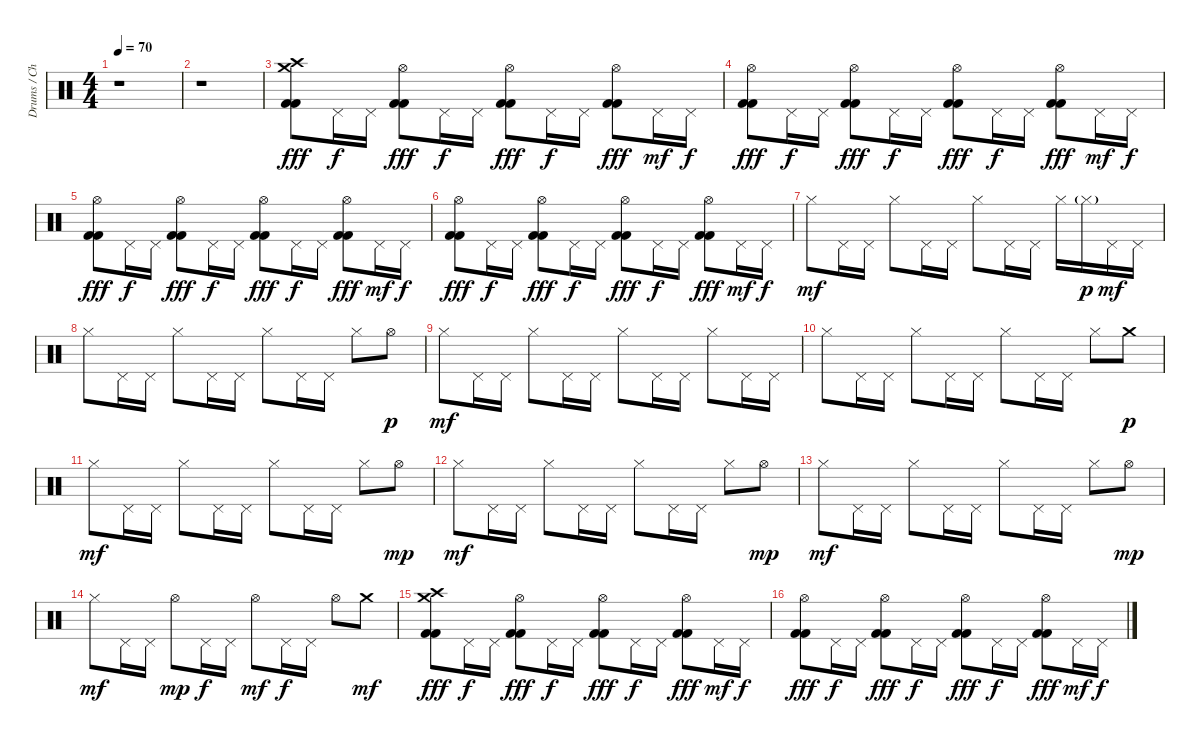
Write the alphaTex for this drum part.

\track ("Drums / Christoph Schneider" "Drums / Ch") {instrument percussion}
\staff {score}
\articulation defaults
\ts (4 4)
\tempo 70
\clef neutral
\ks c
r.1{dy fff} |
r.1 |
("Crash medium (hit)" "Crash high (hit)" "Kick (hit) 2" "Kick (hit) 2").8 "Pedal Hi-Hat (hit)".16{dy f} "Pedal Hi-Hat (hit)".16 ("Hi-Hat (open)" "Kick (hit) 2" "Kick (hit) 2").8{dy fff} "Pedal Hi-Hat (hit)".16{dy f} "Pedal Hi-Hat (hit)".16 ("Hi-Hat (open)" "Kick (hit) 2" "Kick (hit) 2").8{dy fff} "Pedal Hi-Hat (hit)".16{dy f} "Pedal Hi-Hat (hit)".16 ("Hi-Hat (open)" "Kick (hit) 2" "Kick (hit) 2").8{dy fff} "Pedal Hi-Hat (hit)".16{dy mf} "Pedal Hi-Hat (hit)".16{dy f} |
("Hi-Hat (open)" "Kick (hit) 2" "Kick (hit) 2").8{dy fff} "Pedal Hi-Hat (hit)".16{dy f} "Pedal Hi-Hat (hit)".16 ("Hi-Hat (open)" "Kick (hit) 2" "Kick (hit) 2").8{dy fff} "Pedal Hi-Hat (hit)".16{dy f} "Pedal Hi-Hat (hit)".16 ("Hi-Hat (open)" "Kick (hit) 2" "Kick (hit) 2").8{dy fff} "Pedal Hi-Hat (hit)".16{dy f} "Pedal Hi-Hat (hit)".16 ("Hi-Hat (open)" "Kick (hit) 2" "Kick (hit) 2").8{dy fff} "Pedal Hi-Hat (hit)".16{dy mf} "Pedal Hi-Hat (hit)".16{dy f} |
("Hi-Hat (open)" "Kick (hit) 2" "Kick (hit) 2").8{dy fff} "Pedal Hi-Hat (hit)".16{dy f} "Pedal Hi-Hat (hit)".16 ("Hi-Hat (open)" "Kick (hit) 2" "Kick (hit) 2").8{dy fff} "Pedal Hi-Hat (hit)".16{dy f} "Pedal Hi-Hat (hit)".16 ("Hi-Hat (open)" "Kick (hit) 2" "Kick (hit) 2").8{dy fff} "Pedal Hi-Hat (hit)".16{dy f} "Pedal Hi-Hat (hit)".16 ("Hi-Hat (open)" "Kick (hit) 2" "Kick (hit) 2").8{dy fff} "Pedal Hi-Hat (hit)".16{dy mf} "Pedal Hi-Hat (hit)".16{dy f} |
("Hi-Hat (open)" "Kick (hit) 2" "Kick (hit) 2").8{dy fff} "Pedal Hi-Hat (hit)".16{dy f} "Pedal Hi-Hat (hit)".16 ("Hi-Hat (open)" "Kick (hit) 2" "Kick (hit) 2").8{dy fff} "Pedal Hi-Hat (hit)".16{dy f} "Pedal Hi-Hat (hit)".16 ("Hi-Hat (open)" "Kick (hit) 2" "Kick (hit) 2").8{dy fff} "Pedal Hi-Hat (hit)".16{dy f} "Pedal Hi-Hat (hit)".16 ("Hi-Hat (open)" "Kick (hit) 2" "Kick (hit) 2").8{dy fff} "Pedal Hi-Hat (hit)".16{dy mf} "Pedal Hi-Hat (hit)".16{dy f} |
"Hi-Hat (closed)".8{dy mf} "Pedal Hi-Hat (hit)".16 "Pedal Hi-Hat (hit)".16 "Hi-Hat (closed)".8 "Pedal Hi-Hat (hit)".16 "Pedal Hi-Hat (hit)".16 "Hi-Hat (closed)".8 "Pedal Hi-Hat (hit)".16 "Pedal Hi-Hat (hit)".16 "Hi-Hat (closed)".16 "Hi-Hat (closed)"{g}.16{dy p} "Pedal Hi-Hat (hit)".16{dy mf} "Pedal Hi-Hat (hit)".16 |
"Hi-Hat (closed)".8 "Pedal Hi-Hat (hit)".16 "Pedal Hi-Hat (hit)".16 "Hi-Hat (closed)".8 "Pedal Hi-Hat (hit)".16 "Pedal Hi-Hat (hit)".16 "Hi-Hat (closed)".8 "Pedal Hi-Hat (hit)".16 "Pedal Hi-Hat (hit)".16 "Hi-Hat (closed)".8 "Hi-Hat (open)".8{dy p} |
"Hi-Hat (closed)".8{dy mf} "Pedal Hi-Hat (hit)".16 "Pedal Hi-Hat (hit)".16 "Hi-Hat (closed)".8 "Pedal Hi-Hat (hit)".16 "Pedal Hi-Hat (hit)".16 "Hi-Hat (closed)".8 "Pedal Hi-Hat (hit)".16 "Pedal Hi-Hat (hit)".16 "Hi-Hat (closed)".8 "Pedal Hi-Hat (hit)".16 "Pedal Hi-Hat (hit)".16 |
"Hi-Hat (closed)".8 "Pedal Hi-Hat (hit)".16 "Pedal Hi-Hat (hit)".16 "Hi-Hat (closed)".8 "Pedal Hi-Hat (hit)".16 "Pedal Hi-Hat (hit)".16 "Hi-Hat (closed)".8 "Pedal Hi-Hat (hit)".16 "Pedal Hi-Hat (hit)".16 "Hi-Hat (closed)".8 "Crash medium (hit)".8{dy p} |
"Hi-Hat (closed)".8{dy mf} "Pedal Hi-Hat (hit)".16 "Pedal Hi-Hat (hit)".16 "Hi-Hat (closed)".8 "Pedal Hi-Hat (hit)".16 "Pedal Hi-Hat (hit)".16 "Hi-Hat (closed)".8 "Pedal Hi-Hat (hit)".16 "Pedal Hi-Hat (hit)".16 "Hi-Hat (closed)".8 "Hi-Hat (open)".8{dy mp} |
"Hi-Hat (closed)".8{dy mf} "Pedal Hi-Hat (hit)".16 "Pedal Hi-Hat (hit)".16 "Hi-Hat (closed)".8 "Pedal Hi-Hat (hit)".16 "Pedal Hi-Hat (hit)".16 "Hi-Hat (closed)".8 "Pedal Hi-Hat (hit)".16 "Pedal Hi-Hat (hit)".16 "Hi-Hat (closed)".8 "Hi-Hat (open)".8{dy mp} |
"Hi-Hat (closed)".8{dy mf} "Pedal Hi-Hat (hit)".16 "Pedal Hi-Hat (hit)".16 "Hi-Hat (closed)".8 "Pedal Hi-Hat (hit)".16 "Pedal Hi-Hat (hit)".16 "Hi-Hat (closed)".8 "Pedal Hi-Hat (hit)".16 "Pedal Hi-Hat (hit)".16 "Hi-Hat (closed)".8 "Hi-Hat (open)".8{dy mp} |
"Hi-Hat (closed)".8{dy mf} "Pedal Hi-Hat (hit)".16 "Pedal Hi-Hat (hit)".16 "Hi-Hat (open)".8{dy mp} "Pedal Hi-Hat (hit)".16{dy f} "Pedal Hi-Hat (hit)".16 "Hi-Hat (open)".8{dy mf} "Pedal Hi-Hat (hit)".16{dy f} "Pedal Hi-Hat (hit)".16 "Hi-Hat (open)".8 "Crash medium (hit)".8{dy mf} |
("Crash medium (hit)" "Crash high (hit)" "Kick (hit) 2" "Kick (hit) 2").8{dy fff} "Pedal Hi-Hat (hit)".16{dy f} "Pedal Hi-Hat (hit)".16 ("Hi-Hat (open)" "Kick (hit) 2" "Kick (hit) 2").8{dy fff} "Pedal Hi-Hat (hit)".16{dy f} "Pedal Hi-Hat (hit)".16 ("Hi-Hat (open)" "Kick (hit) 2" "Kick (hit) 2").8{dy fff} "Pedal Hi-Hat (hit)".16{dy f} "Pedal Hi-Hat (hit)".16 ("Hi-Hat (open)" "Kick (hit) 2" "Kick (hit) 2").8{dy fff} "Pedal Hi-Hat (hit)".16{dy mf} "Pedal Hi-Hat (hit)".16{dy f} |
("Hi-Hat (open)" "Kick (hit) 2" "Kick (hit) 2").8{dy fff} "Pedal Hi-Hat (hit)".16{dy f} "Pedal Hi-Hat (hit)".16 ("Hi-Hat (open)" "Kick (hit) 2" "Kick (hit) 2").8{dy fff} "Pedal Hi-Hat (hit)".16{dy f} "Pedal Hi-Hat (hit)".16 ("Hi-Hat (open)" "Kick (hit) 2" "Kick (hit) 2").8{dy fff} "Pedal Hi-Hat (hit)".16{dy f} "Pedal Hi-Hat (hit)".16 ("Hi-Hat (open)" "Kick (hit) 2" "Kick (hit) 2").8{dy fff} "Pedal Hi-Hat (hit)".16{dy mf} "Pedal Hi-Hat (hit)".16{dy f}
